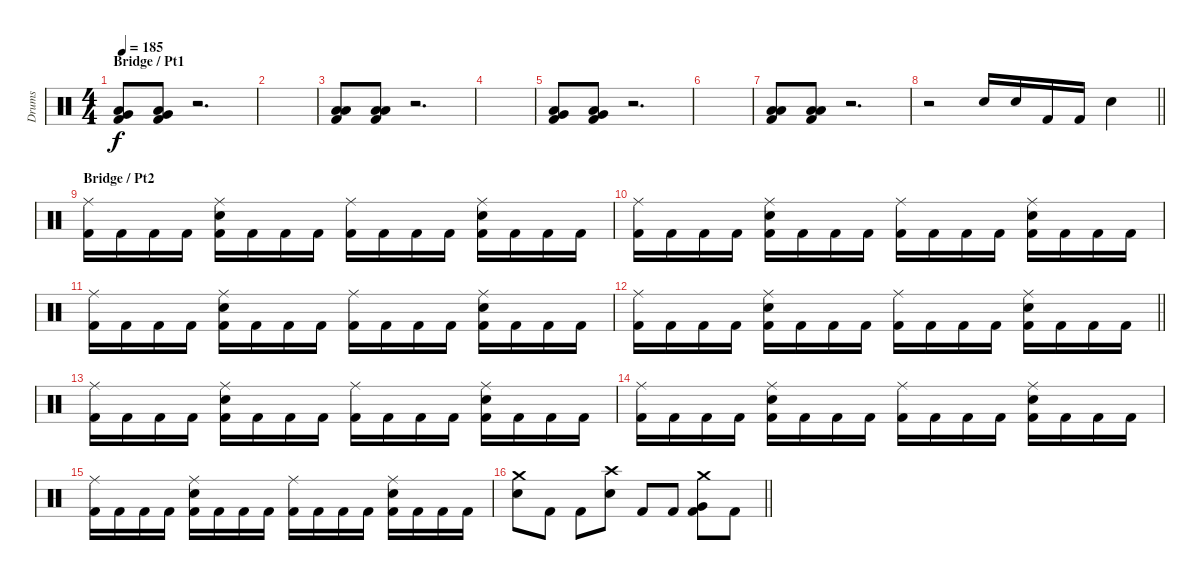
\track ("Drums" "Drums") {instrument percussion}
\staff {score}
\articulation defaults
\ts (4 4)
\section ("" "Bridge / Pt1")
\tempo 185
\clef neutral
\ks c
("Very Low Tom (hit)" "Low Floor Tom (hit)" "Kick (hit) 2").8{dy f} ("Very Low Tom (hit)" "Low Floor Tom (hit)" "Kick (hit) 2").8 r.2{d} |
|
("Low Tom (hit)" "Low Floor Tom (hit)" "Kick (hit) 2").8 ("Low Tom (hit)" "Low Floor Tom (hit)" "Kick (hit) 2").8 r.2{d} |
|
("Very Low Tom (hit)" "Low Floor Tom (hit)" "Kick (hit) 2").8 ("Very Low Tom (hit)" "Low Floor Tom (hit)" "Kick (hit) 2").8 r.2{d} |
|
("Low Tom (hit)" "Low Floor Tom (hit)" "Kick (hit) 2").8 ("Low Tom (hit)" "Low Floor Tom (hit)" "Kick (hit) 2").8 r.2{d} |
\barLineRight lightlight
r.2 "Electric Snare (hit)".16 "Electric Snare (hit)".16 "Kick (hit) 2".16 "Kick (hit) 2".16 "Electric Snare (hit)".4 |
\section ("" "Bridge / Pt2")
("Ride (middle)" "Kick (hit) 2").16 "Kick (hit) 2".16 "Kick (hit) 2".16 "Kick (hit) 2".16 ("Ride (middle)" "Electric Snare (hit)" "Kick (hit) 2").16 "Kick (hit) 2".16 "Kick (hit) 2".16 "Kick (hit) 2".16 ("Ride (middle)" "Kick (hit) 2").16 "Kick (hit) 2".16 "Kick (hit) 2".16 "Kick (hit) 2".16 ("Ride (middle)" "Electric Snare (hit)" "Kick (hit) 2").16 "Kick (hit) 2".16 "Kick (hit) 2".16 "Kick (hit) 2".16 |
("Ride (middle)" "Kick (hit) 2").16 "Kick (hit) 2".16 "Kick (hit) 2".16 "Kick (hit) 2".16 ("Ride (middle)" "Electric Snare (hit)" "Kick (hit) 2").16 "Kick (hit) 2".16 "Kick (hit) 2".16 "Kick (hit) 2".16 ("Ride (middle)" "Kick (hit) 2").16 "Kick (hit) 2".16 "Kick (hit) 2".16 "Kick (hit) 2".16 ("Ride (middle)" "Electric Snare (hit)" "Kick (hit) 2").16 "Kick (hit) 2".16 "Kick (hit) 2".16 "Kick (hit) 2".16 |
("Ride (middle)" "Kick (hit) 2").16 "Kick (hit) 2".16 "Kick (hit) 2".16 "Kick (hit) 2".16 ("Ride (middle)" "Electric Snare (hit)" "Kick (hit) 2").16 "Kick (hit) 2".16 "Kick (hit) 2".16 "Kick (hit) 2".16 ("Ride (middle)" "Kick (hit) 2").16 "Kick (hit) 2".16 "Kick (hit) 2".16 "Kick (hit) 2".16 ("Ride (middle)" "Electric Snare (hit)" "Kick (hit) 2").16 "Kick (hit) 2".16 "Kick (hit) 2".16 "Kick (hit) 2".16 |
\barLineRight lightlight
("Ride (middle)" "Kick (hit) 2").16 "Kick (hit) 2".16 "Kick (hit) 2".16 "Kick (hit) 2".16 ("Ride (middle)" "Electric Snare (hit)" "Kick (hit) 2").16 "Kick (hit) 2".16 "Kick (hit) 2".16 "Kick (hit) 2".16 ("Ride (middle)" "Kick (hit) 2").16 "Kick (hit) 2".16 "Kick (hit) 2".16 "Kick (hit) 2".16 ("Ride (middle)" "Electric Snare (hit)" "Kick (hit) 2").16 "Kick (hit) 2".16 "Kick (hit) 2".16 "Kick (hit) 2".16 |
("Ride (middle)" "Kick (hit) 2").16 "Kick (hit) 2".16 "Kick (hit) 2".16 "Kick (hit) 2".16 ("Ride (middle)" "Electric Snare (hit)" "Kick (hit) 2").16 "Kick (hit) 2".16 "Kick (hit) 2".16 "Kick (hit) 2".16 ("Ride (middle)" "Kick (hit) 2").16 "Kick (hit) 2".16 "Kick (hit) 2".16 "Kick (hit) 2".16 ("Ride (middle)" "Electric Snare (hit)" "Kick (hit) 2").16 "Kick (hit) 2".16 "Kick (hit) 2".16 "Kick (hit) 2".16 |
("Ride (middle)" "Kick (hit) 2").16 "Kick (hit) 2".16 "Kick (hit) 2".16 "Kick (hit) 2".16 ("Ride (middle)" "Electric Snare (hit)" "Kick (hit) 2").16 "Kick (hit) 2".16 "Kick (hit) 2".16 "Kick (hit) 2".16 ("Ride (middle)" "Kick (hit) 2").16 "Kick (hit) 2".16 "Kick (hit) 2".16 "Kick (hit) 2".16 ("Ride (middle)" "Electric Snare (hit)" "Kick (hit) 2").16 "Kick (hit) 2".16 "Kick (hit) 2".16 "Kick (hit) 2".16 |
("Ride (middle)" "Kick (hit) 2").16 "Kick (hit) 2".16 "Kick (hit) 2".16 "Kick (hit) 2".16 ("Ride (middle)" "Electric Snare (hit)" "Kick (hit) 2").16 "Kick (hit) 2".16 "Kick (hit) 2".16 "Kick (hit) 2".16 ("Ride (middle)" "Kick (hit) 2").16 "Kick (hit) 2".16 "Kick (hit) 2".16 "Kick (hit) 2".16 ("Ride (middle)" "Electric Snare (hit)" "Kick (hit) 2").16 "Kick (hit) 2".16 "Kick (hit) 2".16 "Kick (hit) 2".16 |
\barLineRight lightlight
("Crash medium (hit)" "Electric Snare (hit)").8 "Kick (hit) 2".8 "Kick (hit) 2".8 ("Crash high (hit)" "Electric Snare (hit)").8 "Kick (hit) 2".8 "Kick (hit) 2".8 ("Crash medium (hit)" "Very Low Tom (hit)" "Kick (hit) 2").8 "Kick (hit) 2".8
